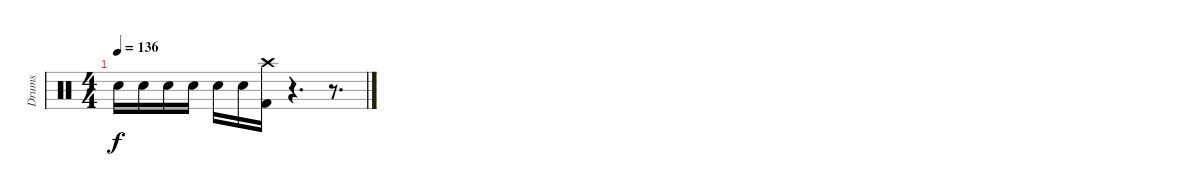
\track ("Drums" "Drums") {instrument percussion}
\staff {score}
\articulation defaults
\ts (4 4)
\tempo 136
\clef neutral
\ks c "Snare (hit) 2".16{dy f} "Snare (hit) 2".16 "Snare (hit) 2".16 "Snare (hit) 2".16 "Snare (hit) 2".16 "Snare (hit) 2".16
("Crash high (hit)" "Kick (hit) 2").16 r.4{d} r.8{d}
